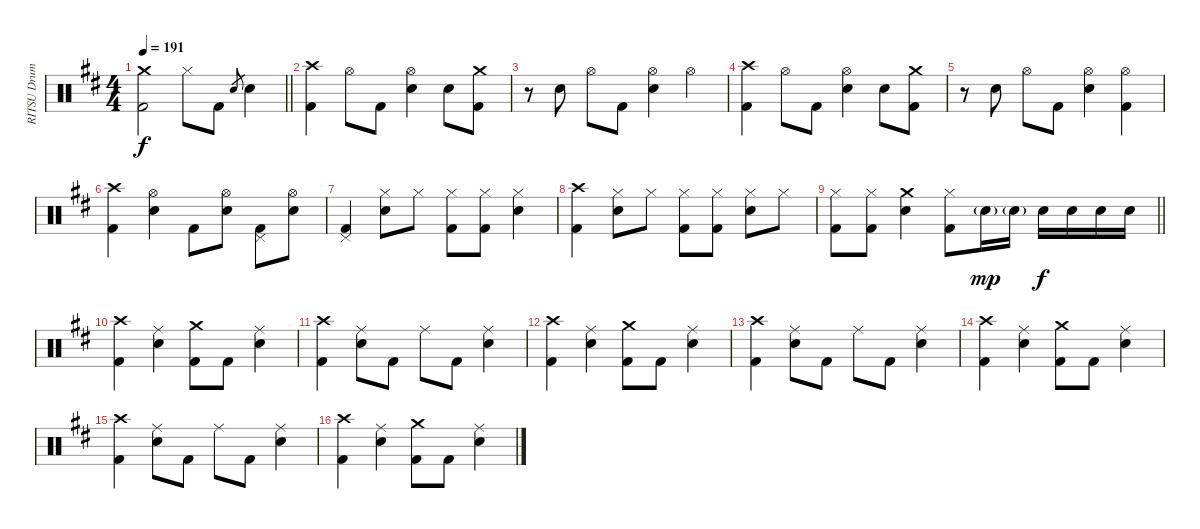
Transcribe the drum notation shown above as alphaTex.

\track ("RITSU Drums" "RITSU Drum") {instrument percussion}
\staff {score}
\articulation defaults
\ts (4 4)
\tempo 191
\clef neutral
\barLineRight lightlight
\ks d
("Crash medium (hit)" "Kick (hit) 2").2{dy f} "Hi-Hat (closed)".8 "Kick (hit) 2".8 "Electric Snare (hit)".8{gr} "Electric Snare (hit)".4 |
("Crash high (hit)" "Kick (hit) 2").4 "Hi-Hat (open)".8 "Kick (hit) 2".8 ("Hi-Hat (open)" "Electric Snare (hit)").4 "Electric Snare (hit)".8 ("Crash medium (hit)" "Kick (hit) 2").8 |
r.8 "Electric Snare (hit)".8 "Hi-Hat (open)".8 "Kick (hit) 2".8 ("Hi-Hat (open)" "Electric Snare (hit)").4 "Hi-Hat (open)".4 |
("Crash high (hit)" "Kick (hit) 2").4 "Hi-Hat (open)".8 "Kick (hit) 2".8 ("Hi-Hat (open)" "Electric Snare (hit)").4 "Electric Snare (hit)".8 ("Crash medium (hit)" "Kick (hit) 2").8 |
r.8 "Electric Snare (hit)".8 "Hi-Hat (open)".8 "Kick (hit) 2".8 ("Hi-Hat (open)" "Electric Snare (hit)").4 ("Hi-Hat (open)" "Kick (hit) 2").4 |
("Crash high (hit)" "Kick (hit) 2").4 ("Hi-Hat (open)" "Electric Snare (hit)").4 "Kick (hit) 2".8 ("Hi-Hat (open)" "Electric Snare (hit)").8 ("Pedal Hi-Hat (hit)" "Kick (hit) 2").8 ("Hi-Hat (open)" "Electric Snare (hit)").8 |
("Pedal Hi-Hat (hit)" "Kick (hit) 2").4 ("Hi-Hat (closed)" "Electric Snare (hit)").8 "Hi-Hat (closed)".8 ("Hi-Hat (closed)" "Kick (hit) 2").8 ("Hi-Hat (closed)" "Kick (hit) 2").8 ("Hi-Hat (closed)" "Electric Snare (hit)").4 |
("Crash high (hit)" "Kick (hit) 2").4 ("Hi-Hat (closed)" "Electric Snare (hit)").8 "Hi-Hat (closed)".8 ("Hi-Hat (closed)" "Kick (hit) 2").8 ("Hi-Hat (closed)" "Kick (hit) 2").8 ("Hi-Hat (closed)" "Electric Snare (hit)").8 "Hi-Hat (closed)".8 |
\barLineRight lightlight
("Hi-Hat (closed)" "Kick (hit) 2").8 ("Hi-Hat (closed)" "Kick (hit) 2").8 ("Crash medium (hit)" "Electric Snare (hit)").4 ("Hi-Hat (closed)" "Kick (hit) 2").8 "Electric Snare (hit)"{g}.16{dy mp} "Electric Snare (hit)"{g}.16 "Electric Snare (hit)".16{dy f} "Electric Snare (hit)".16 "Electric Snare (hit)".16 "Electric Snare (hit)".16 |
("Crash high (hit)" "Kick (hit) 2").4 ("Ride (middle)" "Electric Snare (hit)").4 ("Crash medium (hit)" "Kick (hit) 2").8 "Kick (hit) 2".8 ("Ride (middle)" "Electric Snare (hit)").4 |
("Crash high (hit)" "Kick (hit) 2").4 ("Ride (middle)" "Electric Snare (hit)").8 "Kick (hit) 2".8 "Ride (middle)".8 "Kick (hit) 2".8 ("Ride (middle)" "Electric Snare (hit)").4 |
("Crash high (hit)" "Kick (hit) 2").4 ("Ride (middle)" "Electric Snare (hit)").4 ("Crash medium (hit)" "Kick (hit) 2").8 "Kick (hit) 2".8 ("Ride (middle)" "Electric Snare (hit)").4 |
("Crash high (hit)" "Kick (hit) 2").4 ("Ride (middle)" "Electric Snare (hit)").8 "Kick (hit) 2".8 "Ride (middle)".8 "Kick (hit) 2".8 ("Ride (middle)" "Electric Snare (hit)").4 |
("Crash high (hit)" "Kick (hit) 2").4 ("Ride (middle)" "Electric Snare (hit)").4 ("Crash medium (hit)" "Kick (hit) 2").8 "Kick (hit) 2".8 ("Ride (middle)" "Electric Snare (hit)").4 |
("Crash high (hit)" "Kick (hit) 2").4 ("Ride (middle)" "Electric Snare (hit)").8 "Kick (hit) 2".8 "Ride (middle)".8 "Kick (hit) 2".8 ("Ride (middle)" "Electric Snare (hit)").4 |
("Crash high (hit)" "Kick (hit) 2").4 ("Ride (middle)" "Electric Snare (hit)").4 ("Crash medium (hit)" "Kick (hit) 2").8 "Kick (hit) 2".8 ("Ride (middle)" "Electric Snare (hit)").4
